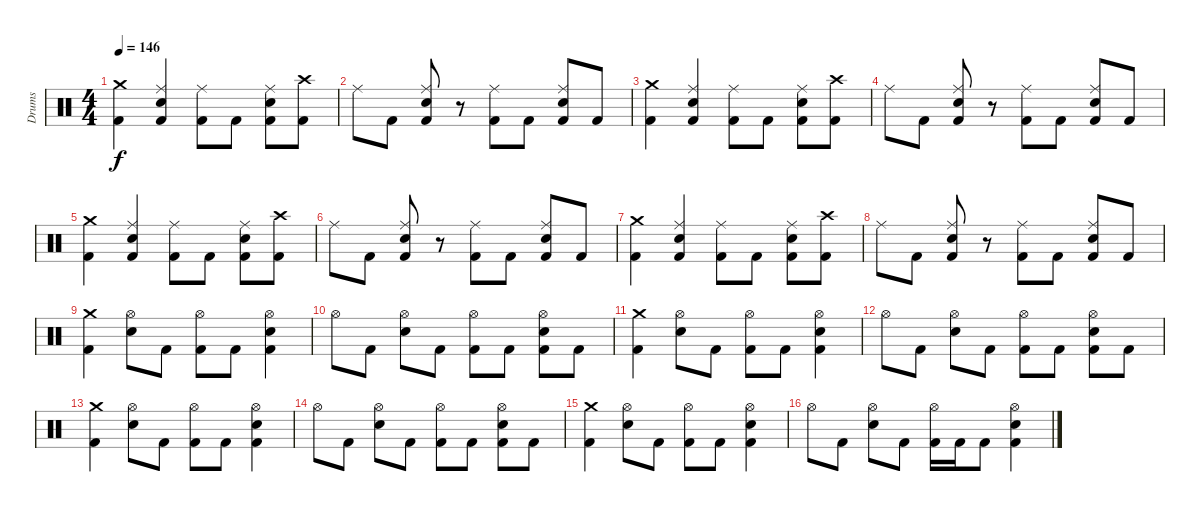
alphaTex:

\track ("Drums" "Drums") {instrument percussion}
\staff {score}
\articulation defaults
\ts (4 4)
\tempo 146
\clef neutral
\ks c
("Crash medium (hit)" "Kick (hit) 2").4{dy f} ("Ride (middle)" "Snare (hit) 2" "Kick (hit) 2").4 ("Ride (middle)" "Kick (hit) 2").8 "Kick (hit) 2".8 ("Ride (middle)" "Snare (hit) 2" "Kick (hit) 2").8 ("Crash high (hit)" "Kick (hit) 2").8 |
"Ride (middle)".8 "Kick (hit) 2".8 ("Ride (middle)" "Snare (hit) 2" "Kick (hit) 2").8 r.8 ("Ride (middle)" "Kick (hit) 2").8 "Kick (hit) 2".8 ("Ride (middle)" "Snare (hit) 2" "Kick (hit) 2").8 "Kick (hit) 2".8 |
("Crash medium (hit)" "Kick (hit) 2").4 ("Ride (middle)" "Snare (hit) 2" "Kick (hit) 2").4 ("Ride (middle)" "Kick (hit) 2").8 "Kick (hit) 2".8 ("Ride (middle)" "Snare (hit) 2" "Kick (hit) 2").8 ("Crash high (hit)" "Kick (hit) 2").8 |
"Ride (middle)".8 "Kick (hit) 2".8 ("Ride (middle)" "Snare (hit) 2" "Kick (hit) 2").8 r.8 ("Ride (middle)" "Kick (hit) 2").8 "Kick (hit) 2".8 ("Ride (middle)" "Snare (hit) 2" "Kick (hit) 2").8 "Kick (hit) 2".8 |
("Crash medium (hit)" "Kick (hit) 2").4 ("Ride (middle)" "Snare (hit) 2" "Kick (hit) 2").4 ("Ride (middle)" "Kick (hit) 2").8 "Kick (hit) 2".8 ("Ride (middle)" "Snare (hit) 2" "Kick (hit) 2").8 ("Crash high (hit)" "Kick (hit) 2").8 |
"Ride (middle)".8 "Kick (hit) 2".8 ("Ride (middle)" "Snare (hit) 2" "Kick (hit) 2").8 r.8 ("Ride (middle)" "Kick (hit) 2").8 "Kick (hit) 2".8 ("Ride (middle)" "Snare (hit) 2" "Kick (hit) 2").8 "Kick (hit) 2".8 |
("Crash medium (hit)" "Kick (hit) 2").4 ("Ride (middle)" "Snare (hit) 2" "Kick (hit) 2").4 ("Ride (middle)" "Kick (hit) 2").8 "Kick (hit) 2".8 ("Ride (middle)" "Snare (hit) 2" "Kick (hit) 2").8 ("Crash high (hit)" "Kick (hit) 2").8 |
"Ride (middle)".8 "Kick (hit) 2".8 ("Ride (middle)" "Snare (hit) 2" "Kick (hit) 2").8 r.8 ("Ride (middle)" "Kick (hit) 2").8 "Kick (hit) 2".8 ("Ride (middle)" "Snare (hit) 2" "Kick (hit) 2").8 "Kick (hit) 2".8 |
("Crash medium (hit)" "Kick (hit) 2").4 ("Hi-Hat (open)" "Snare (hit) 2").8 "Kick (hit) 2".8 ("Hi-Hat (open)" "Kick (hit) 2").8 "Kick (hit) 2".8 ("Hi-Hat (open)" "Snare (hit) 2" "Kick (hit) 2").4 |
"Hi-Hat (open)".8 "Kick (hit) 2".8 ("Hi-Hat (open)" "Snare (hit) 2").8 "Kick (hit) 2".8 ("Hi-Hat (open)" "Kick (hit) 2").8 "Kick (hit) 2".8 ("Hi-Hat (open)" "Snare (hit) 2" "Kick (hit) 2").8 "Kick (hit) 2".8 |
("Crash medium (hit)" "Kick (hit) 2").4 ("Hi-Hat (open)" "Snare (hit) 2").8 "Kick (hit) 2".8 ("Hi-Hat (open)" "Kick (hit) 2").8 "Kick (hit) 2".8 ("Hi-Hat (open)" "Snare (hit) 2" "Kick (hit) 2").4 |
"Hi-Hat (open)".8 "Kick (hit) 2".8 ("Hi-Hat (open)" "Snare (hit) 2").8 "Kick (hit) 2".8 ("Hi-Hat (open)" "Kick (hit) 2").8 "Kick (hit) 2".8 ("Hi-Hat (open)" "Snare (hit) 2" "Kick (hit) 2").8 "Kick (hit) 2".8 |
("Crash medium (hit)" "Kick (hit) 2").4 ("Hi-Hat (open)" "Snare (hit) 2").8 "Kick (hit) 2".8 ("Hi-Hat (open)" "Kick (hit) 2").8 "Kick (hit) 2".8 ("Hi-Hat (open)" "Snare (hit) 2" "Kick (hit) 2").4 |
"Hi-Hat (open)".8 "Kick (hit) 2".8 ("Hi-Hat (open)" "Snare (hit) 2").8 "Kick (hit) 2".8 ("Hi-Hat (open)" "Kick (hit) 2").8 "Kick (hit) 2".8 ("Hi-Hat (open)" "Snare (hit) 2" "Kick (hit) 2").8 "Kick (hit) 2".8 |
("Crash medium (hit)" "Kick (hit) 2").4 ("Hi-Hat (open)" "Snare (hit) 2").8 "Kick (hit) 2".8 ("Hi-Hat (open)" "Kick (hit) 2").8 "Kick (hit) 2".8 ("Hi-Hat (open)" "Snare (hit) 2" "Kick (hit) 2").4 |
"Hi-Hat (open)".8 "Kick (hit) 2".8 ("Hi-Hat (open)" "Snare (hit) 2").8 "Kick (hit) 2".8 ("Hi-Hat (open)" "Kick (hit) 2").16 "Kick (hit) 2".16 "Kick (hit) 2".8 ("Hi-Hat (open)" "Snare (hit) 2" "Kick (hit) 2").4
